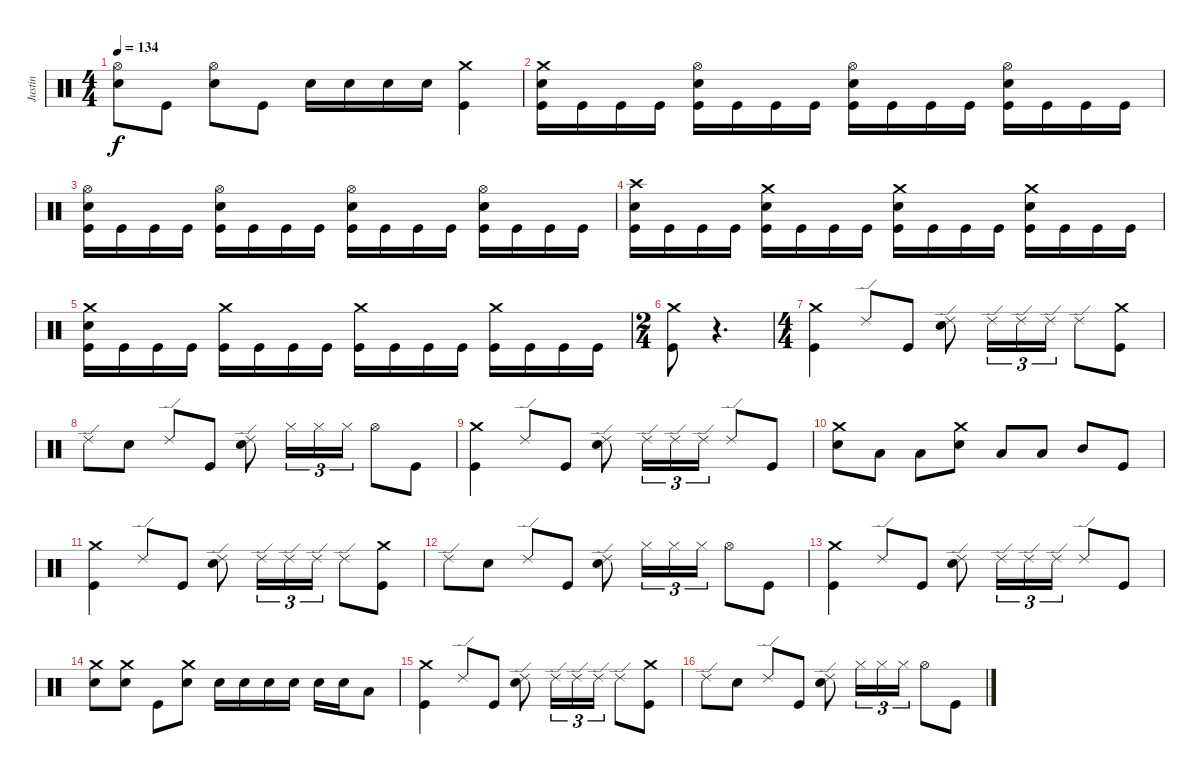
\track ("Justin" "Justin") {instrument percussion}
\staff {score}
\articulation defaults
\ts (4 4)
\tempo 134
\clef neutral
\ks c
("Hi-Hat (open)" "Electric Snare (hit)").8{dy f} "Kick (hit)".8 ("Hi-Hat (open)" "Electric Snare (hit)").8 "Kick (hit)".8 "Electric Snare (hit)".16 "Electric Snare (hit)".16 "Electric Snare (hit)".16 "Electric Snare (hit)".16 ("Crash medium (hit)" "Kick (hit)").4 |
("Crash medium (hit)" "Electric Snare (hit)" "Kick (hit)").16 "Kick (hit)".16 "Kick (hit)".16 "Kick (hit)".16 ("Hi-Hat (open)" "Electric Snare (hit)" "Kick (hit)").16 "Kick (hit)".16 "Kick (hit)".16 "Kick (hit)".16 ("Hi-Hat (open)" "Electric Snare (hit)" "Kick (hit)").16 "Kick (hit)".16 "Kick (hit)".16 "Kick (hit)".16 ("Hi-Hat (open)" "Electric Snare (hit)" "Kick (hit)").16 "Kick (hit)".16 "Kick (hit)".16 "Kick (hit)".16 |
("Hi-Hat (open)" "Electric Snare (hit)" "Kick (hit)").16 "Kick (hit)".16 "Kick (hit)".16 "Kick (hit)".16 ("Hi-Hat (open)" "Electric Snare (hit)" "Kick (hit)").16 "Kick (hit)".16 "Kick (hit)".16 "Kick (hit)".16 ("Hi-Hat (open)" "Electric Snare (hit)" "Kick (hit)").16 "Kick (hit)".16 "Kick (hit)".16 "Kick (hit)".16 ("Hi-Hat (open)" "Electric Snare (hit)" "Kick (hit)").16 "Kick (hit)".16 "Kick (hit)".16 "Kick (hit)".16 |
("Crash high (hit)" "Electric Snare (hit)" "Kick (hit)").16 "Kick (hit)".16 "Kick (hit)".16 "Kick (hit)".16 ("Crash medium (hit)" "Electric Snare (hit)" "Kick (hit)").16 "Kick (hit)".16 "Kick (hit)".16 "Kick (hit)".16 ("Crash medium (hit)" "Electric Snare (hit)" "Kick (hit)").16 "Kick (hit)".16 "Kick (hit)".16 "Kick (hit)".16 ("Crash medium (hit)" "Electric Snare (hit)" "Kick (hit)").16 "Kick (hit)".16 "Kick (hit)".16 "Kick (hit)".16 |
("Crash medium (hit)" "Electric Snare (hit)" "Kick (hit)").16 "Kick (hit)".16 "Kick (hit)".16 "Kick (hit)".16 ("Crash medium (hit)" "Kick (hit)").16 "Kick (hit)".16 "Kick (hit)".16 "Kick (hit)".16 ("Crash medium (hit)" "Kick (hit)").16 "Kick (hit)".16 "Kick (hit)".16 "Kick (hit)".16 ("Crash medium (hit)" "Kick (hit)").16 "Kick (hit)".16 "Kick (hit)".16 "Kick (hit)".16 |
\ts (2 4)
("Crash medium (hit)" "Kick (hit)").8 r.4{d volume 0} |
\ts (4 4)
("Crash medium (hit)" "Kick (hit)").4{volume 16} "Ride (edge) 2".8 "Kick (hit)".8 ("Ride (edge) 2" "Electric Snare (hit)").8 "Ride (edge) 2".16{tu (3 2)} "Ride (edge) 2".16{tu (3 2)} "Ride (edge) 2".16{tu (3 2)} "Ride (edge) 2".8 ("Crash medium (hit)" "Kick (hit)").8 |
"Ride (edge) 2".8 "Electric Snare (hit)".8 "Ride (edge) 2".8 "Kick (hit)".8 ("Ride (edge) 2" "Electric Snare (hit)").8 "Hi-Hat (closed)".16{tu (3 2)} "Hi-Hat (closed)".16{tu (3 2)} "Hi-Hat (closed)".16{tu (3 2)} "Hi-Hat (open)".8 "Kick (hit)".8 |
("Crash medium (hit)" "Kick (hit)").4 "Ride (edge) 2".8 "Kick (hit)".8 ("Ride (edge) 2" "Electric Snare (hit)").8 "Ride (edge) 2".16{tu (3 2)} "Ride (edge) 2".16{tu (3 2)} "Ride (edge) 2".16{tu (3 2)} "Ride (edge) 2".8 "Kick (hit)".8 |
("Crash medium (hit)" "Electric Snare (hit)").8 "Low Floor Tom (hit)".8 "Low Tom (hit)".8 ("Crash medium (hit)" "Electric Snare (hit)").8 "Low Floor Tom (hit)".8 "Low Tom (hit)".8 "Mid Tom (hit)".8 "Kick (hit)".8 |
("Crash medium (hit)" "Kick (hit)").4 "Ride (edge) 2".8 "Kick (hit)".8 ("Ride (edge) 2" "Electric Snare (hit)").8 "Ride (edge) 2".16{tu (3 2)} "Ride (edge) 2".16{tu (3 2)} "Ride (edge) 2".16{tu (3 2)} "Ride (edge) 2".8 ("Crash medium (hit)" "Kick (hit)").8 |
"Ride (edge) 2".8 "Electric Snare (hit)".8 "Ride (edge) 2".8 "Kick (hit)".8 ("Ride (edge) 2" "Electric Snare (hit)").8 "Hi-Hat (closed)".16{tu (3 2)} "Hi-Hat (closed)".16{tu (3 2)} "Hi-Hat (closed)".16{tu (3 2)} "Hi-Hat (open)".8 "Kick (hit)".8 |
("Crash medium (hit)" "Kick (hit)").4 "Ride (edge) 2".8 "Kick (hit)".8 ("Ride (edge) 2" "Electric Snare (hit)").8 "Ride (edge) 2".16{tu (3 2)} "Ride (edge) 2".16{tu (3 2)} "Ride (edge) 2".16{tu (3 2)} "Ride (edge) 2".8 "Kick (hit)".8 |
("Crash medium (hit)" "Electric Snare (hit)").8 ("Crash medium (hit)" "Electric Snare (hit)").8 "Kick (hit)".8 ("Crash medium (hit)" "Electric Snare (hit)").8 "Electric Snare (hit)".16 "Electric Snare (hit)".16 "Electric Snare (hit)".16 "Electric Snare (hit)".16 "Electric Snare (hit)".16 "Electric Snare (hit)".16 "Low Tom (hit)".8 |
("Crash medium (hit)" "Kick (hit)").4 "Ride (edge) 2".8 "Kick (hit)".8 ("Ride (edge) 2" "Electric Snare (hit)").8 "Ride (edge) 2".16{tu (3 2)} "Ride (edge) 2".16{tu (3 2)} "Ride (edge) 2".16{tu (3 2)} "Ride (edge) 2".8 ("Crash medium (hit)" "Kick (hit)").8 |
"Ride (edge) 2".8 "Electric Snare (hit)".8 "Ride (edge) 2".8 "Kick (hit)".8 ("Ride (edge) 2" "Electric Snare (hit)").8 "Hi-Hat (closed)".16{tu (3 2)} "Hi-Hat (closed)".16{tu (3 2)} "Hi-Hat (closed)".16{tu (3 2)} "Hi-Hat (open)".8 "Kick (hit)".8
